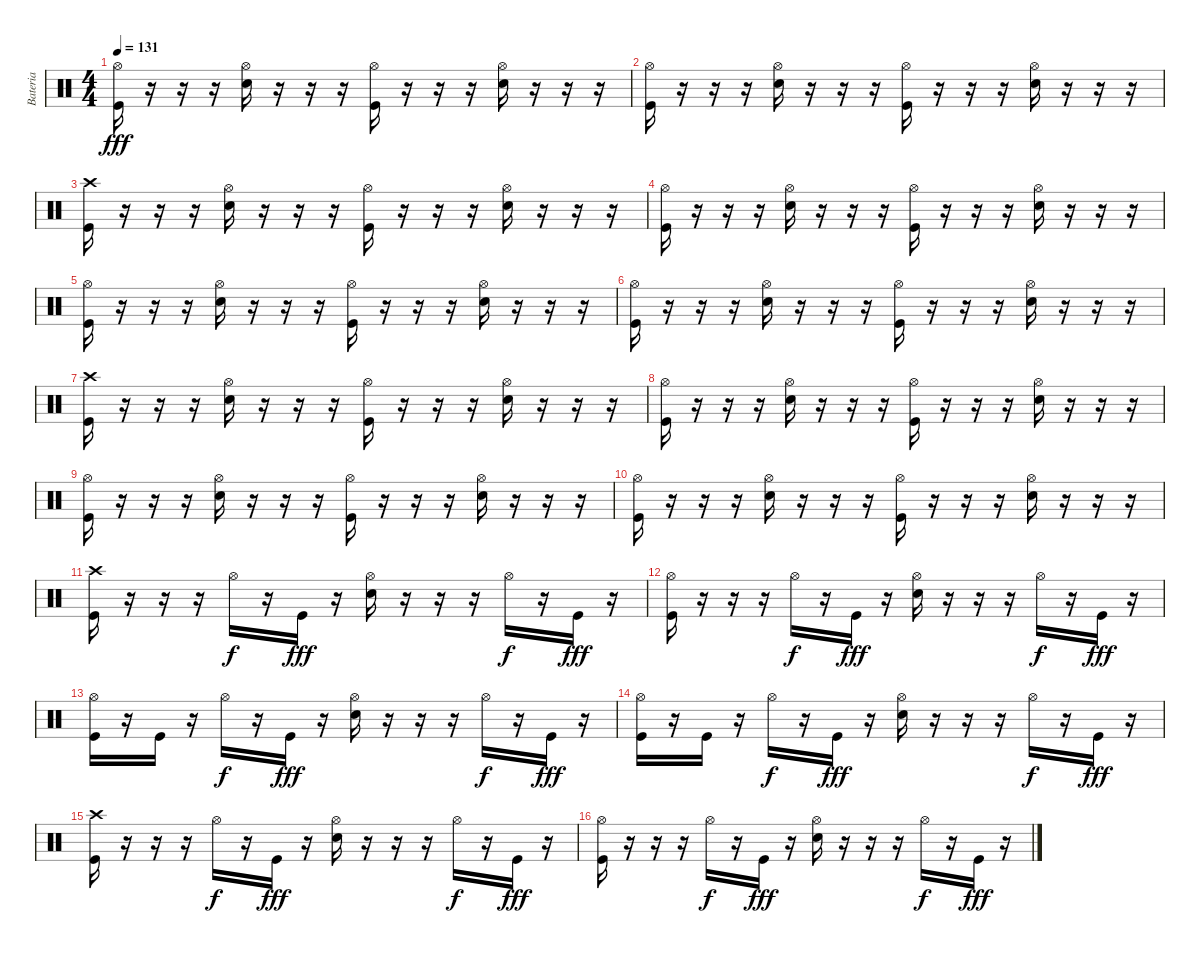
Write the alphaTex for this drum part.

\track ("Bateria" "Bateria") {instrument percussion}
\staff {score}
\articulation defaults
\ts (4 4)
\tempo 131
\clef neutral
\ks c
("Hi-Hat (open)" "Kick (hit)").16{dy fff} r.16 r.16 r.16 ("Hi-Hat (open)" "Electric Snare (hit)").16 r.16 r.16 r.16 ("Hi-Hat (open)" "Kick (hit)").16 r.16 r.16 r.16 ("Hi-Hat (open)" "Electric Snare (hit)").16 r.16 r.16 r.16 |
("Hi-Hat (open)" "Kick (hit)").16 r.16 r.16 r.16 ("Hi-Hat (open)" "Electric Snare (hit)").16 r.16 r.16 r.16 ("Hi-Hat (open)" "Kick (hit)").16 r.16 r.16 r.16 ("Hi-Hat (open)" "Electric Snare (hit)").16 r.16 r.16 r.16 |
("Crash high (hit)" "Kick (hit)").16 r.16 r.16 r.16 ("Hi-Hat (open)" "Electric Snare (hit)").16 r.16 r.16 r.16 ("Hi-Hat (open)" "Kick (hit)").16 r.16 r.16 r.16 ("Hi-Hat (open)" "Electric Snare (hit)").16 r.16 r.16 r.16 |
("Hi-Hat (open)" "Kick (hit)").16 r.16 r.16 r.16 ("Hi-Hat (open)" "Electric Snare (hit)").16 r.16 r.16 r.16 ("Hi-Hat (open)" "Kick (hit)").16 r.16 r.16 r.16 ("Hi-Hat (open)" "Electric Snare (hit)").16 r.16 r.16 r.16 |
("Hi-Hat (open)" "Kick (hit)").16 r.16 r.16 r.16 ("Hi-Hat (open)" "Electric Snare (hit)").16 r.16 r.16 r.16 ("Hi-Hat (open)" "Kick (hit)").16 r.16 r.16 r.16 ("Hi-Hat (open)" "Electric Snare (hit)").16 r.16 r.16 r.16 |
("Hi-Hat (open)" "Kick (hit)").16 r.16 r.16 r.16 ("Hi-Hat (open)" "Electric Snare (hit)").16 r.16 r.16 r.16 ("Hi-Hat (open)" "Kick (hit)").16 r.16 r.16 r.16 ("Hi-Hat (open)" "Electric Snare (hit)").16 r.16 r.16 r.16 |
("Crash high (hit)" "Kick (hit)").16 r.16 r.16 r.16 ("Hi-Hat (open)" "Electric Snare (hit)").16 r.16 r.16 r.16 ("Hi-Hat (open)" "Kick (hit)").16 r.16 r.16 r.16 ("Hi-Hat (open)" "Electric Snare (hit)").16 r.16 r.16 r.16 |
("Hi-Hat (open)" "Kick (hit)").16 r.16 r.16 r.16 ("Hi-Hat (open)" "Electric Snare (hit)").16 r.16 r.16 r.16 ("Hi-Hat (open)" "Kick (hit)").16 r.16 r.16 r.16 ("Hi-Hat (open)" "Electric Snare (hit)").16 r.16 r.16 r.16 |
("Hi-Hat (open)" "Kick (hit)").16 r.16 r.16 r.16 ("Hi-Hat (open)" "Electric Snare (hit)").16 r.16 r.16 r.16 ("Hi-Hat (open)" "Kick (hit)").16 r.16 r.16 r.16 ("Hi-Hat (open)" "Electric Snare (hit)").16 r.16 r.16 r.16 |
("Hi-Hat (open)" "Kick (hit)").16 r.16 r.16 r.16 ("Hi-Hat (open)" "Electric Snare (hit)").16 r.16 r.16 r.16 ("Hi-Hat (open)" "Kick (hit)").16 r.16 r.16 r.16 ("Hi-Hat (open)" "Electric Snare (hit)").16 r.16 r.16 r.16 |
("Crash high (hit)" "Kick (hit)").16 r.16 r.16 r.16 "Hi-Hat (open)".16{dy f} r.16 "Kick (hit)".16{dy fff} r.16 ("Hi-Hat (open)" "Electric Snare (hit)").16 r.16 r.16 r.16 "Hi-Hat (open)".16{dy f} r.16 "Kick (hit)".16{dy fff} r.16 |
("Hi-Hat (open)" "Kick (hit)").16 r.16 r.16 r.16 "Hi-Hat (open)".16{dy f} r.16 "Kick (hit)".16{dy fff} r.16 ("Hi-Hat (open)" "Electric Snare (hit)").16 r.16 r.16 r.16 "Hi-Hat (open)".16{dy f} r.16 "Kick (hit)".16{dy fff} r.16 |
("Hi-Hat (open)" "Kick (hit)").16 r.16 "Kick (hit)".16 r.16 "Hi-Hat (open)".16{dy f} r.16 "Kick (hit)".16{dy fff} r.16 ("Hi-Hat (open)" "Electric Snare (hit)").16 r.16 r.16 r.16 "Hi-Hat (open)".16{dy f} r.16 "Kick (hit)".16{dy fff} r.16 |
("Hi-Hat (open)" "Kick (hit)").16 r.16 "Kick (hit)".16 r.16 "Hi-Hat (open)".16{dy f} r.16 "Kick (hit)".16{dy fff} r.16 ("Hi-Hat (open)" "Electric Snare (hit)").16 r.16 r.16 r.16 "Hi-Hat (open)".16{dy f} r.16 "Kick (hit)".16{dy fff} r.16 |
("Crash high (hit)" "Kick (hit)").16 r.16 r.16 r.16 "Hi-Hat (open)".16{dy f} r.16 "Kick (hit)".16{dy fff} r.16 ("Hi-Hat (open)" "Electric Snare (hit)").16 r.16 r.16 r.16 "Hi-Hat (open)".16{dy f} r.16 "Kick (hit)".16{dy fff} r.16 |
("Hi-Hat (open)" "Kick (hit)").16 r.16 r.16 r.16 "Hi-Hat (open)".16{dy f} r.16 "Kick (hit)".16{dy fff} r.16 ("Hi-Hat (open)" "Electric Snare (hit)").16 r.16 r.16 r.16 "Hi-Hat (open)".16{dy f} r.16 "Kick (hit)".16{dy fff} r.16
